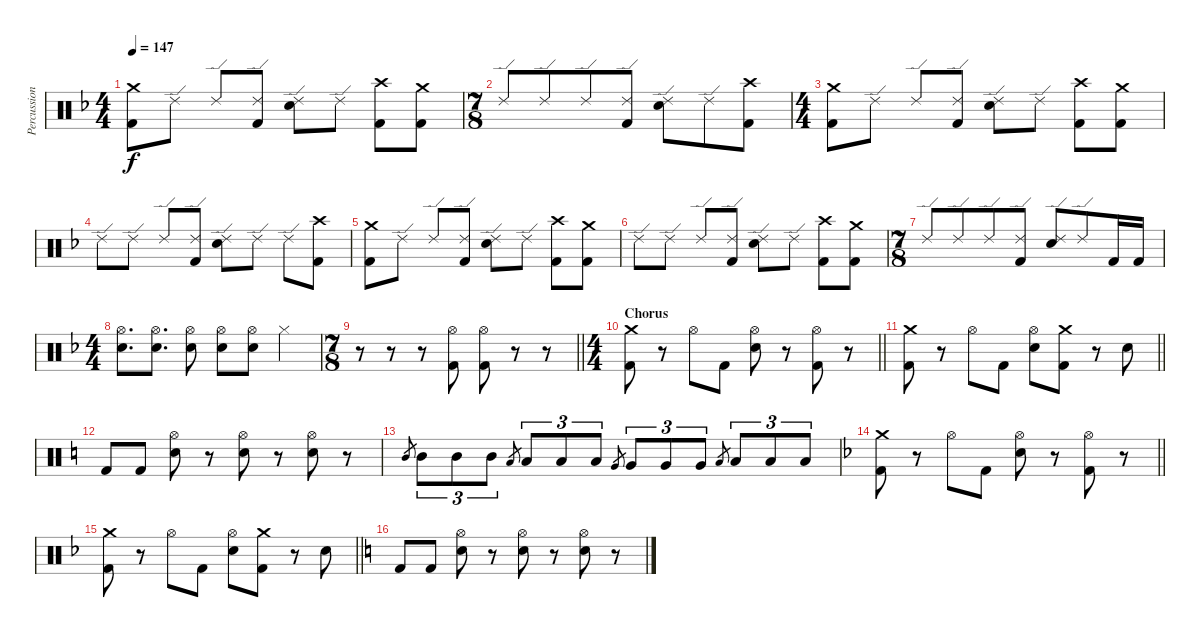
\track ("Percussion" "Percussion") {instrument percussion}
\staff {score}
\articulation defaults
\ts (4 4)
\tempo 147
\clef neutral
\ks f
("Crash medium (hit)" "Kick (hit) 2").8{dy f} "Ride (edge) 2".8 "Ride (edge) 2".8 ("Ride (edge) 2" "Kick (hit) 2").8 ("Ride (edge) 2" "Electric Snare (hit)").8 "Ride (edge) 2".8 ("Crash high (hit)" "Kick (hit) 2").8 ("Crash medium (hit)" "Kick (hit) 2").8 |
\ts (7 8)
"Ride (edge) 2".8 "Ride (edge) 2".8 "Ride (edge) 2".8 ("Ride (edge) 2" "Kick (hit) 2").8 ("Ride (edge) 2" "Electric Snare (hit)").8 "Ride (edge) 2".8 ("Crash high (hit)" "Kick (hit) 2").8 |
\ts (4 4)
("Crash medium (hit)" "Kick (hit) 2").8 "Ride (edge) 2".8 "Ride (edge) 2".8 ("Ride (edge) 2" "Kick (hit) 2").8 ("Ride (edge) 2" "Electric Snare (hit)").8 "Ride (edge) 2".8 ("Crash high (hit)" "Kick (hit) 2").8 ("Crash medium (hit)" "Kick (hit) 2").8 |
"Ride (edge) 2".8 "Ride (edge) 2".8 "Ride (edge) 2".8 ("Ride (edge) 2" "Kick (hit) 2").8 ("Ride (edge) 2" "Electric Snare (hit)").8 "Ride (edge) 2".8 "Ride (edge) 2".8 ("Crash high (hit)" "Kick (hit) 2").8 |
("Crash medium (hit)" "Kick (hit) 2").8 "Ride (edge) 2".8 "Ride (edge) 2".8 ("Ride (edge) 2" "Kick (hit) 2").8 ("Ride (edge) 2" "Electric Snare (hit)").8 "Ride (edge) 2".8 ("Crash high (hit)" "Kick (hit) 2").8 ("Crash medium (hit)" "Kick (hit) 2").8 |
"Ride (edge) 2".8 "Ride (edge) 2".8 "Ride (edge) 2".8 ("Ride (edge) 2" "Kick (hit) 2").8 ("Ride (edge) 2" "Electric Snare (hit)").8 "Ride (edge) 2".8 ("Crash high (hit)" "Kick (hit) 2").8 ("Crash medium (hit)" "Kick (hit) 2").8 |
\ts (7 8)
"Ride (edge) 2".8 "Ride (edge) 2".8 "Ride (edge) 2".8 ("Ride (edge) 2" "Kick (hit) 2").8 ("Ride (edge) 2" "Electric Snare (hit)").8 "Ride (edge) 2".8 "Kick (hit) 2".16 "Kick (hit) 2".16 |
\ts (4 4)
("Hi-Hat (open)" "Electric Snare (hit)").8{d} ("Hi-Hat (open)" "Electric Snare (hit)").8{d} ("Hi-Hat (open)" "Electric Snare (hit)").8 ("Hi-Hat (open)" "Electric Snare (hit)").8 ("Hi-Hat (open)" "Electric Snare (hit)").8 "Hi-Hat (closed)".4 |
\ts (7 8)
\barLineRight lightlight
r.8 r.8 r.8 ("Hi-Hat (open)" "Kick (hit) 2").8 ("Hi-Hat (open)" "Kick (hit) 2").8 r.8 r.8 |
\ts (4 4)
\section ("" "Chorus")
\barLineRight lightlight
("Crash medium (hit)" "Kick (hit) 2").8 r.8 "Hi-Hat (open)".8 "Kick (hit) 2".8 ("Hi-Hat (open)" "Electric Snare (hit)").8 r.8 ("Hi-Hat (open)" "Kick (hit) 2").8 r.8 |
\barLineRight lightlight
("Crash medium (hit)" "Kick (hit) 2").8 r.8 "Hi-Hat (open)".8 "Kick (hit) 2".8 ("Hi-Hat (open)" "Electric Snare (hit)").8 ("Crash medium (hit)" "Kick (hit) 2").8 r.8 "Electric Snare (hit)".8 |
\ks c "Kick (hit) 2".8 "Kick (hit) 2".8
("Hi-Hat (open)" "Electric Snare (hit)").8 r.8 ("Hi-Hat (open)" "Electric Snare (hit)").8 r.8 ("Hi-Hat (open)" "Electric Snare (hit)").8 r.8 |
"Mid Tom (hit)".8{gr} "Mid Tom (hit)".8{tu (3 2)} "Mid Tom (hit)".8{tu (3 2)} "Mid Tom (hit)".8{tu (3 2)} "Low Tom (hit)".8{gr} "Low Tom (hit)".8{tu (3 2)} "Low Tom (hit)".8{tu (3 2)} "Low Tom (hit)".8{tu (3 2)} "Very Low Tom (hit)".8{gr} "Very Low Tom (hit)".8{tu (3 2)} "Very Low Tom (hit)".8{tu (3 2)} "Very Low Tom (hit)".8{tu (3 2)} "Low Floor Tom (hit)".8{gr} "Low Floor Tom (hit)".8{tu (3 2)} "Low Floor Tom (hit)".8{tu (3 2)} "Low Floor Tom (hit)".8{tu (3 2)} |
\barLineRight lightlight
\ks f
("Crash medium (hit)" "Kick (hit) 2").8 r.8 "Hi-Hat (open)".8 "Kick (hit) 2".8 ("Hi-Hat (open)" "Electric Snare (hit)").8 r.8 ("Hi-Hat (open)" "Kick (hit) 2").8 r.8 |
\barLineRight lightlight
("Crash medium (hit)" "Kick (hit) 2").8 r.8 "Hi-Hat (open)".8 "Kick (hit) 2".8 ("Hi-Hat (open)" "Electric Snare (hit)").8 ("Crash medium (hit)" "Kick (hit) 2").8 r.8 "Electric Snare (hit)".8 |
\ks c "Kick (hit) 2".8 "Kick (hit) 2".8
("Hi-Hat (open)" "Electric Snare (hit)").8 r.8 ("Hi-Hat (open)" "Electric Snare (hit)").8 r.8 ("Hi-Hat (open)" "Electric Snare (hit)").8 r.8
